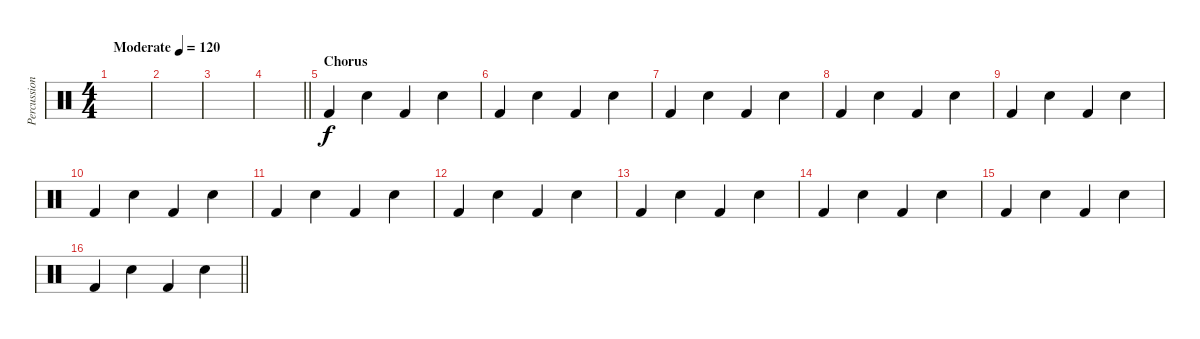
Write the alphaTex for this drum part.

\track ("Percussion" "Percussion") {instrument percussion}
\staff {score}
\articulation defaults
\ts (4 4)
\tempo (120 "Moderate")
\clef neutral
\ks c
|
|
|
\barLineRight lightlight
|
\section ("" "Chorus")
"Kick (hit) 2".4 "Snare (hit) 2".4 "Kick (hit) 2".4 "Snare (hit) 2".4 |
"Kick (hit) 2".4 "Snare (hit) 2".4 "Kick (hit) 2".4 "Snare (hit) 2".4 |
"Kick (hit) 2".4 "Snare (hit) 2".4 "Kick (hit) 2".4 "Snare (hit) 2".4 |
"Kick (hit) 2".4 "Snare (hit) 2".4 "Kick (hit) 2".4 "Snare (hit) 2".4 |
"Kick (hit) 2".4 "Snare (hit) 2".4 "Kick (hit) 2".4 "Snare (hit) 2".4 |
"Kick (hit) 2".4 "Snare (hit) 2".4 "Kick (hit) 2".4 "Snare (hit) 2".4 |
"Kick (hit) 2".4 "Snare (hit) 2".4 "Kick (hit) 2".4 "Snare (hit) 2".4 |
"Kick (hit) 2".4 "Snare (hit) 2".4 "Kick (hit) 2".4 "Snare (hit) 2".4 |
"Kick (hit) 2".4 "Snare (hit) 2".4 "Kick (hit) 2".4 "Snare (hit) 2".4 |
"Kick (hit) 2".4 "Snare (hit) 2".4 "Kick (hit) 2".4 "Snare (hit) 2".4 |
"Kick (hit) 2".4 "Snare (hit) 2".4 "Kick (hit) 2".4 "Snare (hit) 2".4 |
\barLineRight lightlight "Kick (hit) 2".4 "Snare (hit) 2".4 "Kick (hit) 2".4 "Snare (hit) 2".4
